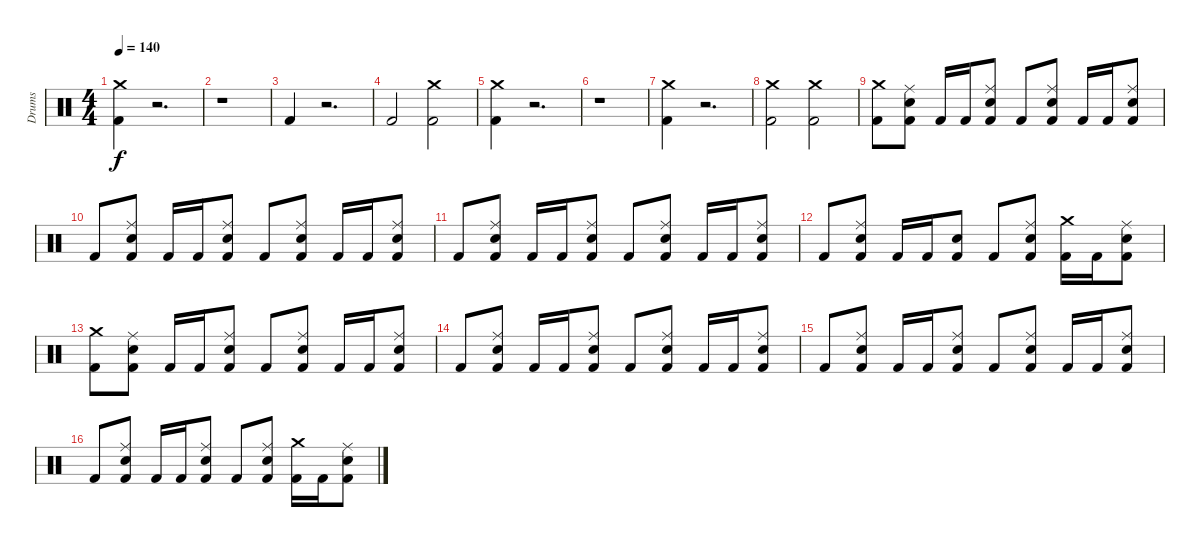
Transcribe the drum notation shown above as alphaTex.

\track ("Drums" "Drums") {instrument percussion}
\staff {score}
\articulation defaults
\ts (4 4)
\tempo 140
\clef neutral
\ks c
("Crash medium (hit)" "Kick (hit) 2").4{dy f} r.2{d} |
r.1 |
"Kick (hit) 2".4 r.2{d} |
"Kick (hit) 2".2 ("Crash medium (hit)" "Kick (hit) 2").2 |
("Crash medium (hit)" "Kick (hit) 2").4 r.2{d} |
r.1 |
("Crash medium (hit)" "Kick (hit) 2").4 r.2{d} |
("Crash medium (hit)" "Kick (hit) 2").2 ("Crash medium (hit)" "Kick (hit) 2").2 |
("Crash medium (hit)" "Kick (hit) 2").8 ("Ride (middle)" "Electric Snare (hit)" "Kick (hit) 2").8 "Kick (hit) 2".16 "Kick (hit) 2".16 ("Ride (middle)" "Electric Snare (hit)" "Kick (hit) 2").8 "Kick (hit) 2".8 ("Ride (middle)" "Electric Snare (hit)" "Kick (hit) 2").8 "Kick (hit) 2".16 "Kick (hit) 2".16 ("Ride (middle)" "Electric Snare (hit)" "Kick (hit) 2").8 |
"Kick (hit) 2".8 ("Ride (middle)" "Electric Snare (hit)" "Kick (hit) 2").8 "Kick (hit) 2".16 "Kick (hit) 2".16 ("Ride (middle)" "Electric Snare (hit)" "Kick (hit) 2").8 "Kick (hit) 2".8 ("Ride (middle)" "Electric Snare (hit)" "Kick (hit) 2").8 "Kick (hit) 2".16 "Kick (hit) 2".16 ("Ride (middle)" "Electric Snare (hit)" "Kick (hit) 2").8 |
"Kick (hit) 2".8 ("Ride (middle)" "Electric Snare (hit)" "Kick (hit) 2").8 "Kick (hit) 2".16 "Kick (hit) 2".16 ("Ride (middle)" "Electric Snare (hit)" "Kick (hit) 2").8 "Kick (hit) 2".8 ("Ride (middle)" "Electric Snare (hit)" "Kick (hit) 2").8 "Kick (hit) 2".16 "Kick (hit) 2".16 ("Ride (middle)" "Electric Snare (hit)" "Kick (hit) 2").8 |
"Kick (hit) 2".8 ("Ride (middle)" "Electric Snare (hit)" "Kick (hit) 2").8 "Kick (hit) 2".16 "Kick (hit) 2".16 ("Electric Snare (hit)" "Kick (hit) 2").8 "Kick (hit) 2".8 ("Ride (middle)" "Electric Snare (hit)" "Kick (hit) 2").8 ("Crash medium (hit)" "Kick (hit) 2").16 "Kick (hit) 2".16 ("Ride (middle)" "Electric Snare (hit)" "Kick (hit) 2").8 |
("Crash medium (hit)" "Kick (hit) 2").8 ("Ride (middle)" "Electric Snare (hit)" "Kick (hit) 2").8 "Kick (hit) 2".16 "Kick (hit) 2".16 ("Ride (middle)" "Electric Snare (hit)" "Kick (hit) 2").8 "Kick (hit) 2".8 ("Ride (middle)" "Electric Snare (hit)" "Kick (hit) 2").8 "Kick (hit) 2".16 "Kick (hit) 2".16 ("Ride (middle)" "Electric Snare (hit)" "Kick (hit) 2").8 |
"Kick (hit) 2".8 ("Ride (middle)" "Electric Snare (hit)" "Kick (hit) 2").8 "Kick (hit) 2".16 "Kick (hit) 2".16 ("Ride (middle)" "Electric Snare (hit)" "Kick (hit) 2").8 "Kick (hit) 2".8 ("Ride (middle)" "Electric Snare (hit)" "Kick (hit) 2").8 "Kick (hit) 2".16 "Kick (hit) 2".16 ("Ride (middle)" "Electric Snare (hit)" "Kick (hit) 2").8 |
"Kick (hit) 2".8 ("Ride (middle)" "Electric Snare (hit)" "Kick (hit) 2").8 "Kick (hit) 2".16 "Kick (hit) 2".16 ("Ride (middle)" "Electric Snare (hit)" "Kick (hit) 2").8 "Kick (hit) 2".8 ("Ride (middle)" "Electric Snare (hit)" "Kick (hit) 2").8 "Kick (hit) 2".16 "Kick (hit) 2".16 ("Ride (middle)" "Electric Snare (hit)" "Kick (hit) 2").8 |
"Kick (hit) 2".8 ("Ride (middle)" "Electric Snare (hit)" "Kick (hit) 2").8 "Kick (hit) 2".16 "Kick (hit) 2".16 ("Ride (middle)" "Electric Snare (hit)" "Kick (hit) 2").8 "Kick (hit) 2".8 ("Ride (middle)" "Electric Snare (hit)" "Kick (hit) 2").8 ("Crash medium (hit)" "Kick (hit) 2").16 "Kick (hit) 2".16 ("Ride (middle)" "Electric Snare (hit)" "Kick (hit) 2").8
